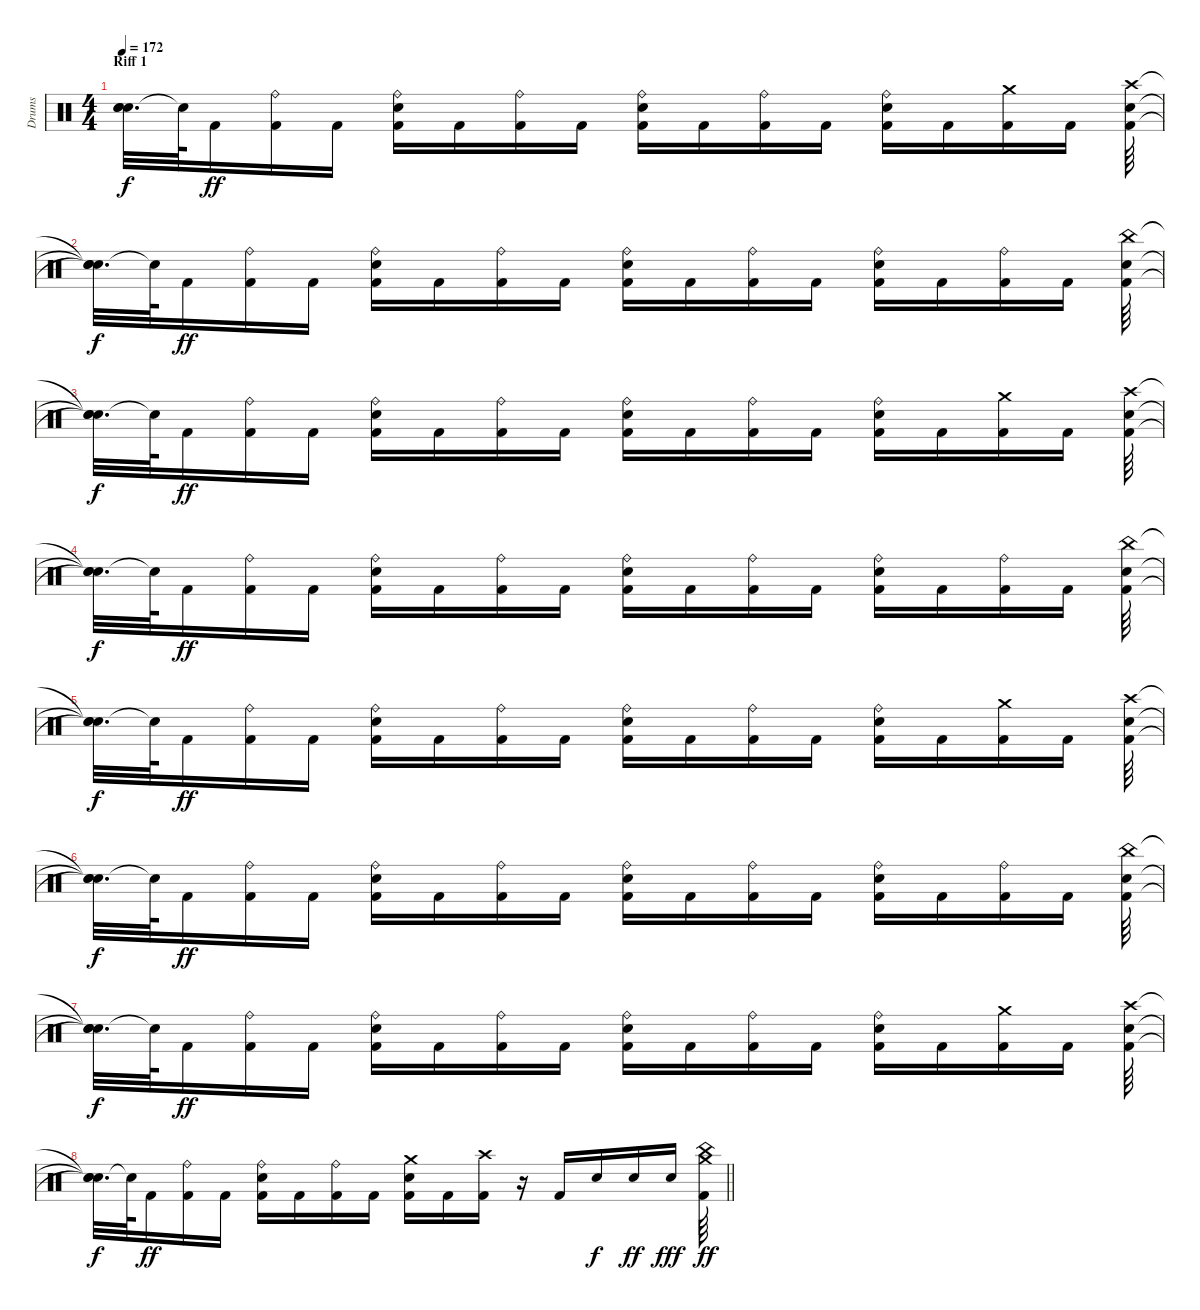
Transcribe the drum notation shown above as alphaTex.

\track ("Drums" "Drums") {instrument percussion}
\staff {score}
\articulation defaults
\ts (4 4)
\section ("" "Riff 1")
\tempo 172
\clef neutral
\ks c
("Snare (hit)"{t} "Snare (hit)"{t} "Snare (hit)"{t}).32{d dy f} "Snare (hit)"{t}.64 "Kick (hit) 2".16{dy ff} ("Kick (hit) 2" "Ride (bell)").16 "Kick (hit) 2".16 ("Kick (hit) 2" "Snare (hit) 2" "Ride (bell)").16 "Kick (hit) 2".16 ("Kick (hit) 2" "Ride (bell)").16 "Kick (hit) 2".16 ("Kick (hit) 2" "Snare (hit) 2" "Ride (bell)").16 "Kick (hit) 2".16 ("Kick (hit) 2" "Ride (bell)").16 "Kick (hit) 2".16 ("Kick (hit) 2" "Snare (hit) 2" "Ride (bell)").16 "Kick (hit) 2".16 ("Crash medium (hit)" "Kick (hit) 2").16 "Kick (hit) 2".16 ("Crash high (hit)" "Kick (hit) 2" "Snare (hit) 2").64 |
("Snare (hit)"{t} "Snare (hit)"{t} "Snare (hit)"{t}).32{d dy f} "Snare (hit)"{t}.64 "Kick (hit) 2".16{dy ff} ("Kick (hit) 2" "Ride (bell)").16 "Kick (hit) 2".16 ("Kick (hit) 2" "Snare (hit) 2" "Ride (bell)").16 "Kick (hit) 2".16 ("Kick (hit) 2" "Ride (bell)").16 "Kick (hit) 2".16 ("Kick (hit) 2" "Snare (hit) 2" "Ride (bell)").16 "Kick (hit) 2".16 ("Kick (hit) 2" "Ride (bell)").16 "Kick (hit) 2".16 ("Kick (hit) 2" "Snare (hit) 2" "Ride (bell)").16 "Kick (hit) 2".16 ("Kick (hit) 2" "Ride (bell)").16 "Kick (hit) 2".16 ("China (hit)" "Kick (hit) 2" "Snare (hit) 2").64 |
("Snare (hit)"{t} "Snare (hit)"{t} "Snare (hit)"{t}).32{d dy f} "Snare (hit)"{t}.64 "Kick (hit) 2".16{dy ff} ("Kick (hit) 2" "Ride (bell)").16 "Kick (hit) 2".16 ("Kick (hit) 2" "Snare (hit) 2" "Ride (bell)").16 "Kick (hit) 2".16 ("Kick (hit) 2" "Ride (bell)").16 "Kick (hit) 2".16 ("Kick (hit) 2" "Snare (hit) 2" "Ride (bell)").16 "Kick (hit) 2".16 ("Kick (hit) 2" "Ride (bell)").16 "Kick (hit) 2".16 ("Kick (hit) 2" "Snare (hit) 2" "Ride (bell)").16 "Kick (hit) 2".16 ("Crash medium (hit)" "Kick (hit) 2").16 "Kick (hit) 2".16 ("Crash high (hit)" "Kick (hit) 2" "Snare (hit) 2").64 |
("Snare (hit)"{t} "Snare (hit)"{t} "Snare (hit)"{t}).32{d dy f} "Snare (hit)"{t}.64 "Kick (hit) 2".16{dy ff} ("Kick (hit) 2" "Ride (bell)").16 "Kick (hit) 2".16 ("Kick (hit) 2" "Snare (hit) 2" "Ride (bell)").16 "Kick (hit) 2".16 ("Kick (hit) 2" "Ride (bell)").16 "Kick (hit) 2".16 ("Kick (hit) 2" "Snare (hit) 2" "Ride (bell)").16 "Kick (hit) 2".16 ("Kick (hit) 2" "Ride (bell)").16 "Kick (hit) 2".16 ("Kick (hit) 2" "Snare (hit) 2" "Ride (bell)").16 "Kick (hit) 2".16 ("Kick (hit) 2" "Ride (bell)").16 "Kick (hit) 2".16 ("China (hit)" "Kick (hit) 2" "Snare (hit) 2").64 |
("Snare (hit)"{t} "Snare (hit)"{t} "Snare (hit)"{t}).32{d dy f} "Snare (hit)"{t}.64 "Kick (hit) 2".16{dy ff} ("Kick (hit) 2" "Ride (bell)").16 "Kick (hit) 2".16 ("Kick (hit) 2" "Snare (hit) 2" "Ride (bell)").16 "Kick (hit) 2".16 ("Kick (hit) 2" "Ride (bell)").16 "Kick (hit) 2".16 ("Kick (hit) 2" "Snare (hit) 2" "Ride (bell)").16 "Kick (hit) 2".16 ("Kick (hit) 2" "Ride (bell)").16 "Kick (hit) 2".16 ("Kick (hit) 2" "Snare (hit) 2" "Ride (bell)").16 "Kick (hit) 2".16 ("Crash medium (hit)" "Kick (hit) 2").16 "Kick (hit) 2".16 ("Crash high (hit)" "Kick (hit) 2" "Snare (hit) 2").64 |
("Snare (hit)"{t} "Snare (hit)"{t} "Snare (hit)"{t}).32{d dy f} "Snare (hit)"{t}.64 "Kick (hit) 2".16{dy ff} ("Kick (hit) 2" "Ride (bell)").16 "Kick (hit) 2".16 ("Kick (hit) 2" "Snare (hit) 2" "Ride (bell)").16 "Kick (hit) 2".16 ("Kick (hit) 2" "Ride (bell)").16 "Kick (hit) 2".16 ("Kick (hit) 2" "Snare (hit) 2" "Ride (bell)").16 "Kick (hit) 2".16 ("Kick (hit) 2" "Ride (bell)").16 "Kick (hit) 2".16 ("Kick (hit) 2" "Snare (hit) 2" "Ride (bell)").16 "Kick (hit) 2".16 ("Kick (hit) 2" "Ride (bell)").16 "Kick (hit) 2".16 ("China (hit)" "Kick (hit) 2" "Snare (hit) 2").64 |
("Snare (hit)"{t} "Snare (hit)"{t} "Snare (hit)"{t}).32{d dy f} "Snare (hit)"{t}.64 "Kick (hit) 2".16{dy ff} ("Kick (hit) 2" "Ride (bell)").16 "Kick (hit) 2".16 ("Kick (hit) 2" "Snare (hit) 2" "Ride (bell)").16 "Kick (hit) 2".16 ("Kick (hit) 2" "Ride (bell)").16 "Kick (hit) 2".16 ("Kick (hit) 2" "Snare (hit) 2" "Ride (bell)").16 "Kick (hit) 2".16 ("Kick (hit) 2" "Ride (bell)").16 "Kick (hit) 2".16 ("Kick (hit) 2" "Snare (hit) 2" "Ride (bell)").16 "Kick (hit) 2".16 ("Crash medium (hit)" "Kick (hit) 2").16 "Kick (hit) 2".16 ("Crash high (hit)" "Kick (hit) 2" "Snare (hit) 2").64 |
\barLineRight lightlight
("Snare (hit)"{t} "Snare (hit)"{t} "Snare (hit)"{t}).32{d dy f} "Snare (hit)"{t}.64 "Kick (hit) 2".16{dy ff} ("Kick (hit) 2" "Ride (bell)").16 "Kick (hit) 2".16 ("Kick (hit) 2" "Snare (hit) 2" "Ride (bell)").16 "Kick (hit) 2".16 ("Kick (hit) 2" "Ride (bell)").16 "Kick (hit) 2".16 ("Crash medium (hit)" "Kick (hit) 2" "Snare (hit) 2").16 "Kick (hit) 2".16 ("Crash high (hit)" "Kick (hit) 2").16 r.16 "Kick (hit) 2".16 "Snare (hit) 2".16{dy f} "Snare (hit) 2".16{dy ff} "Snare (hit) 2".16{dy fff} ("China (hit)" "Crash medium (hit)" "Kick (hit) 2").64{dy ff}
